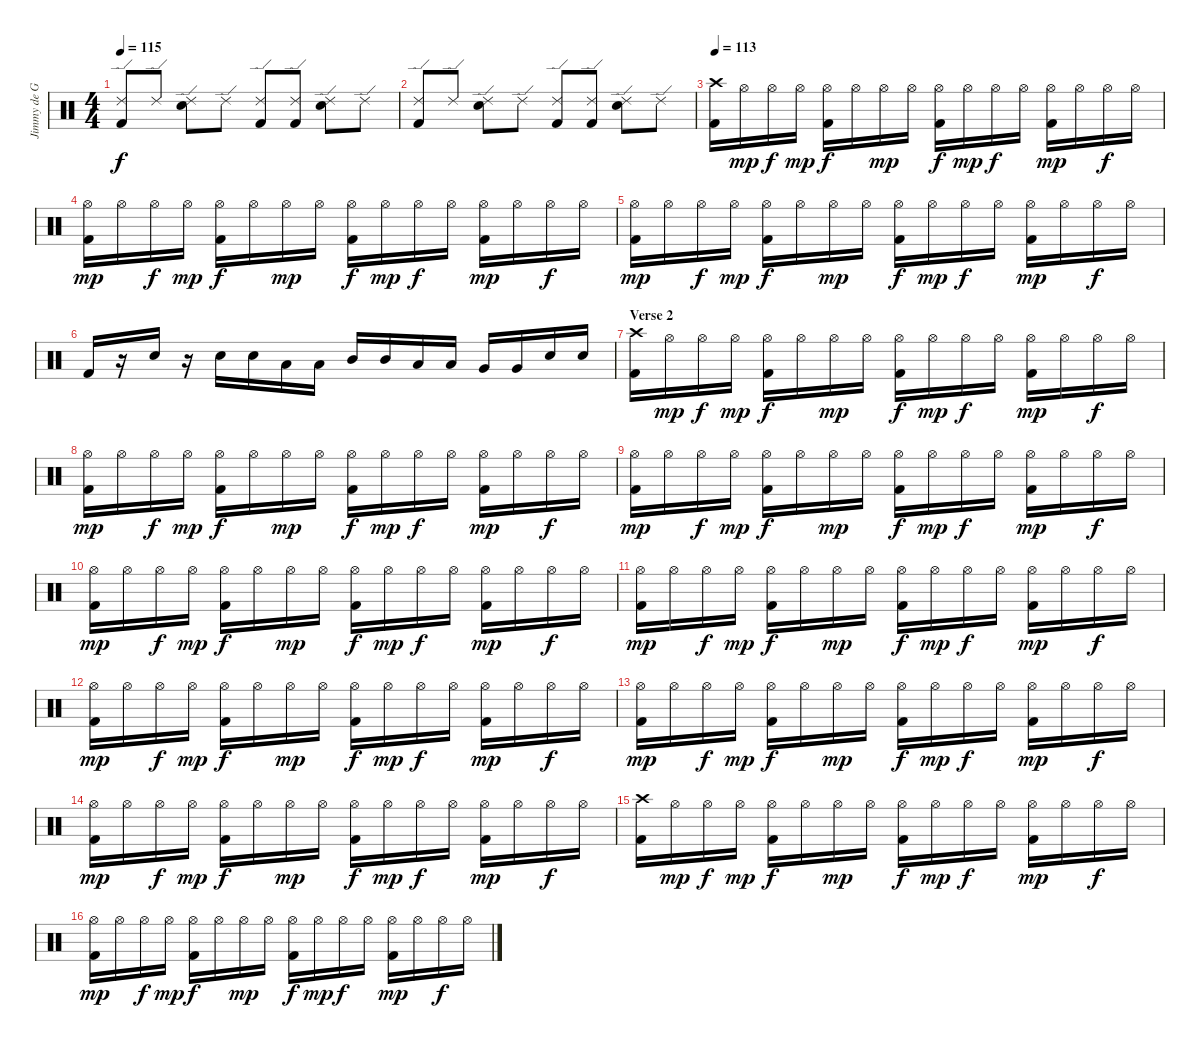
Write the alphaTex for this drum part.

\track ("Jimmy de Grasso" "Jimmy de G") {instrument percussion}
\staff {score}
\articulation defaults
\ts (4 4)
\tempo 115
\clef neutral
\ks c
("Ride (edge) 2" "Kick (hit) 2").8{dy f} "Ride (edge) 2".8 ("Ride (edge) 2" "Snare (hit) 2").8 "Ride (edge) 2".8 ("Ride (edge) 2" "Kick (hit) 2").8 ("Ride (edge) 2" "Kick (hit) 2").8 ("Ride (edge) 2" "Snare (hit) 2").8 "Ride (edge) 2".8 |
("Ride (edge) 2" "Kick (hit) 2").8 "Ride (edge) 2".8 ("Ride (edge) 2" "Snare (hit) 2").8 "Ride (edge) 2".8 ("Ride (edge) 2" "Kick (hit) 2").8 ("Ride (edge) 2" "Kick (hit) 2").8 ("Ride (edge) 2" "Snare (hit) 2").8 "Ride (edge) 2".8 |
\tempo 113
("Crash high (hit)" "Kick (hit) 2").16 "Hi-Hat (open)".16{dy mp} "Hi-Hat (open)".16{dy f} "Hi-Hat (open)".16{dy mp} ("Hi-Hat (open)" "Kick (hit) 2").16{dy f} "Hi-Hat (open)".16 "Hi-Hat (open)".16{dy mp} "Hi-Hat (open)".16 ("Hi-Hat (open)" "Kick (hit) 2").16{dy f} "Hi-Hat (open)".16{dy mp} "Hi-Hat (open)".16{dy f} "Hi-Hat (open)".16 ("Hi-Hat (open)" "Kick (hit) 2").16{dy mp} "Hi-Hat (open)".16 "Hi-Hat (open)".16{dy f} "Hi-Hat (open)".16 |
("Hi-Hat (open)" "Kick (hit) 2").16{dy mp} "Hi-Hat (open)".16 "Hi-Hat (open)".16{dy f} "Hi-Hat (open)".16{dy mp} ("Hi-Hat (open)" "Kick (hit) 2").16{dy f} "Hi-Hat (open)".16 "Hi-Hat (open)".16{dy mp} "Hi-Hat (open)".16 ("Hi-Hat (open)" "Kick (hit) 2").16{dy f} "Hi-Hat (open)".16{dy mp} "Hi-Hat (open)".16{dy f} "Hi-Hat (open)".16 ("Hi-Hat (open)" "Kick (hit) 2").16{dy mp} "Hi-Hat (open)".16 "Hi-Hat (open)".16{dy f} "Hi-Hat (open)".16 |
("Hi-Hat (open)" "Kick (hit) 2").16{dy mp} "Hi-Hat (open)".16 "Hi-Hat (open)".16{dy f} "Hi-Hat (open)".16{dy mp} ("Hi-Hat (open)" "Kick (hit) 2").16{dy f} "Hi-Hat (open)".16 "Hi-Hat (open)".16{dy mp} "Hi-Hat (open)".16 ("Hi-Hat (open)" "Kick (hit) 2").16{dy f} "Hi-Hat (open)".16{dy mp} "Hi-Hat (open)".16{dy f} "Hi-Hat (open)".16 ("Hi-Hat (open)" "Kick (hit) 2").16{dy mp} "Hi-Hat (open)".16 "Hi-Hat (open)".16{dy f} "Hi-Hat (open)".16 |
"Kick (hit) 2".16 r.16 "Snare (hit) 2".16 r.16 "Snare (hit) 2".16 "Snare (hit) 2".16 "Low Tom (hit)".16 "Low Tom (hit)".16 "Mid Tom (hit)".16 "Mid Tom (hit)".16 "Low Tom (hit)".16 "Low Tom (hit)".16 "Very Low Tom (hit)".16 "Very Low Tom (hit)".16 "Snare (hit) 2".16 "Snare (hit) 2".16 |
\section ("" "Verse 2")
("Crash high (hit)" "Kick (hit) 2").16 "Hi-Hat (open)".16{dy mp} "Hi-Hat (open)".16{dy f} "Hi-Hat (open)".16{dy mp} ("Hi-Hat (open)" "Kick (hit) 2").16{dy f} "Hi-Hat (open)".16 "Hi-Hat (open)".16{dy mp} "Hi-Hat (open)".16 ("Hi-Hat (open)" "Kick (hit) 2").16{dy f} "Hi-Hat (open)".16{dy mp} "Hi-Hat (open)".16{dy f} "Hi-Hat (open)".16 ("Hi-Hat (open)" "Kick (hit) 2").16{dy mp} "Hi-Hat (open)".16 "Hi-Hat (open)".16{dy f} "Hi-Hat (open)".16 |
("Hi-Hat (open)" "Kick (hit) 2").16{dy mp} "Hi-Hat (open)".16 "Hi-Hat (open)".16{dy f} "Hi-Hat (open)".16{dy mp} ("Hi-Hat (open)" "Kick (hit) 2").16{dy f} "Hi-Hat (open)".16 "Hi-Hat (open)".16{dy mp} "Hi-Hat (open)".16 ("Hi-Hat (open)" "Kick (hit) 2").16{dy f} "Hi-Hat (open)".16{dy mp} "Hi-Hat (open)".16{dy f} "Hi-Hat (open)".16 ("Hi-Hat (open)" "Kick (hit) 2").16{dy mp} "Hi-Hat (open)".16 "Hi-Hat (open)".16{dy f} "Hi-Hat (open)".16 |
("Hi-Hat (open)" "Kick (hit) 2").16{dy mp} "Hi-Hat (open)".16 "Hi-Hat (open)".16{dy f} "Hi-Hat (open)".16{dy mp} ("Hi-Hat (open)" "Kick (hit) 2").16{dy f} "Hi-Hat (open)".16 "Hi-Hat (open)".16{dy mp} "Hi-Hat (open)".16 ("Hi-Hat (open)" "Kick (hit) 2").16{dy f} "Hi-Hat (open)".16{dy mp} "Hi-Hat (open)".16{dy f} "Hi-Hat (open)".16 ("Hi-Hat (open)" "Kick (hit) 2").16{dy mp} "Hi-Hat (open)".16 "Hi-Hat (open)".16{dy f} "Hi-Hat (open)".16 |
("Hi-Hat (open)" "Kick (hit) 2").16{dy mp} "Hi-Hat (open)".16 "Hi-Hat (open)".16{dy f} "Hi-Hat (open)".16{dy mp} ("Hi-Hat (open)" "Kick (hit) 2").16{dy f} "Hi-Hat (open)".16 "Hi-Hat (open)".16{dy mp} "Hi-Hat (open)".16 ("Hi-Hat (open)" "Kick (hit) 2").16{dy f} "Hi-Hat (open)".16{dy mp} "Hi-Hat (open)".16{dy f} "Hi-Hat (open)".16 ("Hi-Hat (open)" "Kick (hit) 2").16{dy mp} "Hi-Hat (open)".16 "Hi-Hat (open)".16{dy f} "Hi-Hat (open)".16 |
("Hi-Hat (open)" "Kick (hit) 2").16{dy mp} "Hi-Hat (open)".16 "Hi-Hat (open)".16{dy f} "Hi-Hat (open)".16{dy mp} ("Hi-Hat (open)" "Kick (hit) 2").16{dy f} "Hi-Hat (open)".16 "Hi-Hat (open)".16{dy mp} "Hi-Hat (open)".16 ("Hi-Hat (open)" "Kick (hit) 2").16{dy f} "Hi-Hat (open)".16{dy mp} "Hi-Hat (open)".16{dy f} "Hi-Hat (open)".16 ("Hi-Hat (open)" "Kick (hit) 2").16{dy mp} "Hi-Hat (open)".16 "Hi-Hat (open)".16{dy f} "Hi-Hat (open)".16 |
("Hi-Hat (open)" "Kick (hit) 2").16{dy mp} "Hi-Hat (open)".16 "Hi-Hat (open)".16{dy f} "Hi-Hat (open)".16{dy mp} ("Hi-Hat (open)" "Kick (hit) 2").16{dy f} "Hi-Hat (open)".16 "Hi-Hat (open)".16{dy mp} "Hi-Hat (open)".16 ("Hi-Hat (open)" "Kick (hit) 2").16{dy f} "Hi-Hat (open)".16{dy mp} "Hi-Hat (open)".16{dy f} "Hi-Hat (open)".16 ("Hi-Hat (open)" "Kick (hit) 2").16{dy mp} "Hi-Hat (open)".16 "Hi-Hat (open)".16{dy f} "Hi-Hat (open)".16 |
("Hi-Hat (open)" "Kick (hit) 2").16{dy mp} "Hi-Hat (open)".16 "Hi-Hat (open)".16{dy f} "Hi-Hat (open)".16{dy mp} ("Hi-Hat (open)" "Kick (hit) 2").16{dy f} "Hi-Hat (open)".16 "Hi-Hat (open)".16{dy mp} "Hi-Hat (open)".16 ("Hi-Hat (open)" "Kick (hit) 2").16{dy f} "Hi-Hat (open)".16{dy mp} "Hi-Hat (open)".16{dy f} "Hi-Hat (open)".16 ("Hi-Hat (open)" "Kick (hit) 2").16{dy mp} "Hi-Hat (open)".16 "Hi-Hat (open)".16{dy f} "Hi-Hat (open)".16 |
("Hi-Hat (open)" "Kick (hit) 2").16{dy mp} "Hi-Hat (open)".16 "Hi-Hat (open)".16{dy f} "Hi-Hat (open)".16{dy mp} ("Hi-Hat (open)" "Kick (hit) 2").16{dy f} "Hi-Hat (open)".16 "Hi-Hat (open)".16{dy mp} "Hi-Hat (open)".16 ("Hi-Hat (open)" "Kick (hit) 2").16{dy f} "Hi-Hat (open)".16{dy mp} "Hi-Hat (open)".16{dy f} "Hi-Hat (open)".16 ("Hi-Hat (open)" "Kick (hit) 2").16{dy mp} "Hi-Hat (open)".16 "Hi-Hat (open)".16{dy f} "Hi-Hat (open)".16 |
("Crash high (hit)" "Kick (hit) 2").16 "Hi-Hat (open)".16{dy mp} "Hi-Hat (open)".16{dy f} "Hi-Hat (open)".16{dy mp} ("Hi-Hat (open)" "Kick (hit) 2").16{dy f} "Hi-Hat (open)".16 "Hi-Hat (open)".16{dy mp} "Hi-Hat (open)".16 ("Hi-Hat (open)" "Kick (hit) 2").16{dy f} "Hi-Hat (open)".16{dy mp} "Hi-Hat (open)".16{dy f} "Hi-Hat (open)".16 ("Hi-Hat (open)" "Kick (hit) 2").16{dy mp} "Hi-Hat (open)".16 "Hi-Hat (open)".16{dy f} "Hi-Hat (open)".16 |
("Hi-Hat (open)" "Kick (hit) 2").16{dy mp} "Hi-Hat (open)".16 "Hi-Hat (open)".16{dy f} "Hi-Hat (open)".16{dy mp} ("Hi-Hat (open)" "Kick (hit) 2").16{dy f} "Hi-Hat (open)".16 "Hi-Hat (open)".16{dy mp} "Hi-Hat (open)".16 ("Hi-Hat (open)" "Kick (hit) 2").16{dy f} "Hi-Hat (open)".16{dy mp} "Hi-Hat (open)".16{dy f} "Hi-Hat (open)".16 ("Hi-Hat (open)" "Kick (hit) 2").16{dy mp} "Hi-Hat (open)".16 "Hi-Hat (open)".16{dy f} "Hi-Hat (open)".16
